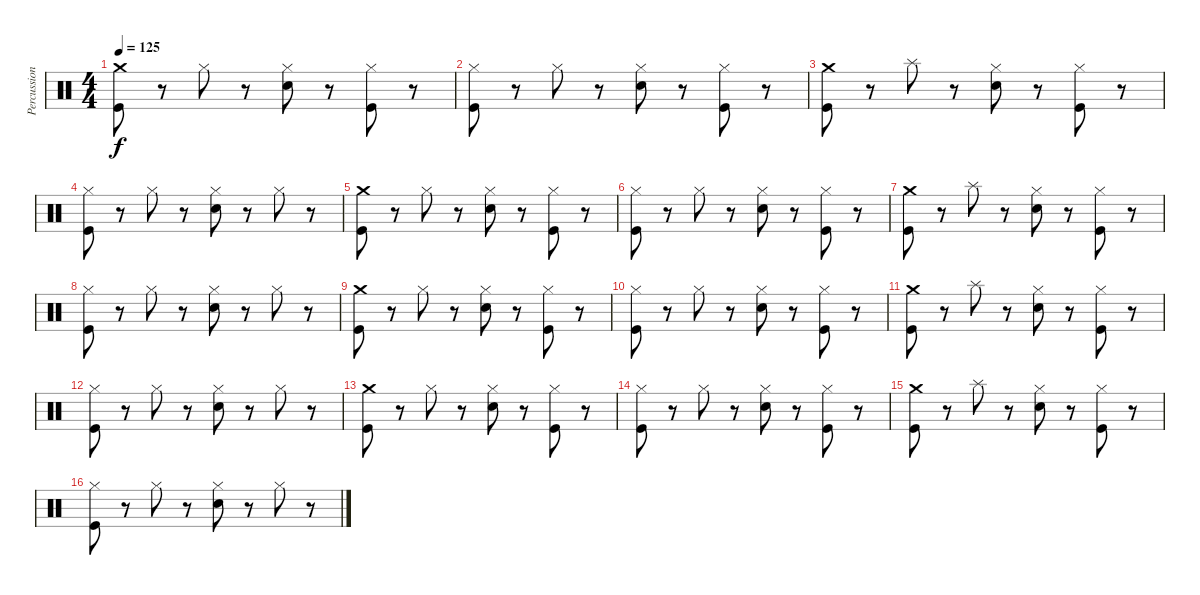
\track ("Percussion" "Percussion") {instrument percussion}
\staff {score}
\articulation defaults
\ts (4 4)
\tempo 125
\clef neutral
\ks c
("Crash medium (hit)" "Kick (hit)").8{dy f} r.8 "Hi-Hat (closed)".8 r.8 ("Hi-Hat (closed)" "Electric Snare (hit)").8 r.8 ("Hi-Hat (closed)" "Kick (hit)").8 r.8 |
("Hi-Hat (closed)" "Kick (hit)").8 r.8 "Hi-Hat (closed)".8 r.8 ("Hi-Hat (closed)" "Electric Snare (hit)").8 r.8 ("Hi-Hat (closed)" "Kick (hit)").8 r.8 |
("Crash medium (hit)" "Kick (hit)").8 r.8 "Splash (hit)".8 r.8 ("Hi-Hat (closed)" "Electric Snare (hit)").8 r.8 ("Hi-Hat (closed)" "Kick (hit)").8 r.8 |
("Hi-Hat (closed)" "Kick (hit)").8 r.8 "Hi-Hat (closed)".8 r.8 ("Hi-Hat (closed)" "Electric Snare (hit)").8 r.8 "Hi-Hat (closed)".8 r.8 |
("Crash medium (hit)" "Kick (hit)").8 r.8 "Hi-Hat (closed)".8 r.8 ("Hi-Hat (closed)" "Electric Snare (hit)").8 r.8 ("Hi-Hat (closed)" "Kick (hit)").8 r.8 |
("Hi-Hat (closed)" "Kick (hit)").8 r.8 "Hi-Hat (closed)".8 r.8 ("Hi-Hat (closed)" "Electric Snare (hit)").8 r.8 ("Hi-Hat (closed)" "Kick (hit)").8 r.8 |
("Crash medium (hit)" "Kick (hit)").8 r.8 "Splash (hit)".8 r.8 ("Hi-Hat (closed)" "Electric Snare (hit)").8 r.8 ("Hi-Hat (closed)" "Kick (hit)").8 r.8 |
("Hi-Hat (closed)" "Kick (hit)").8 r.8 "Hi-Hat (closed)".8 r.8 ("Hi-Hat (closed)" "Electric Snare (hit)").8 r.8 "Hi-Hat (closed)".8 r.8 |
("Crash medium (hit)" "Kick (hit)").8 r.8 "Hi-Hat (closed)".8 r.8 ("Hi-Hat (closed)" "Electric Snare (hit)").8 r.8 ("Hi-Hat (closed)" "Kick (hit)").8 r.8 |
("Hi-Hat (closed)" "Kick (hit)").8 r.8 "Hi-Hat (closed)".8 r.8 ("Hi-Hat (closed)" "Electric Snare (hit)").8 r.8 ("Hi-Hat (closed)" "Kick (hit)").8 r.8 |
("Crash medium (hit)" "Kick (hit)").8 r.8 "Splash (hit)".8 r.8 ("Hi-Hat (closed)" "Electric Snare (hit)").8 r.8 ("Hi-Hat (closed)" "Kick (hit)").8 r.8 |
("Hi-Hat (closed)" "Kick (hit)").8 r.8 "Hi-Hat (closed)".8 r.8 ("Hi-Hat (closed)" "Electric Snare (hit)").8 r.8 "Hi-Hat (closed)".8 r.8 |
("Crash medium (hit)" "Kick (hit)").8 r.8 "Hi-Hat (closed)".8 r.8 ("Hi-Hat (closed)" "Electric Snare (hit)").8 r.8 ("Hi-Hat (closed)" "Kick (hit)").8 r.8 |
("Hi-Hat (closed)" "Kick (hit)").8 r.8 "Hi-Hat (closed)".8 r.8 ("Hi-Hat (closed)" "Electric Snare (hit)").8 r.8 ("Hi-Hat (closed)" "Kick (hit)").8 r.8 |
("Crash medium (hit)" "Kick (hit)").8 r.8 "Splash (hit)".8 r.8 ("Hi-Hat (closed)" "Electric Snare (hit)").8 r.8 ("Hi-Hat (closed)" "Kick (hit)").8 r.8 |
("Hi-Hat (closed)" "Kick (hit)").8 r.8 "Hi-Hat (closed)".8 r.8 ("Hi-Hat (closed)" "Electric Snare (hit)").8 r.8 "Hi-Hat (closed)".8 r.8
